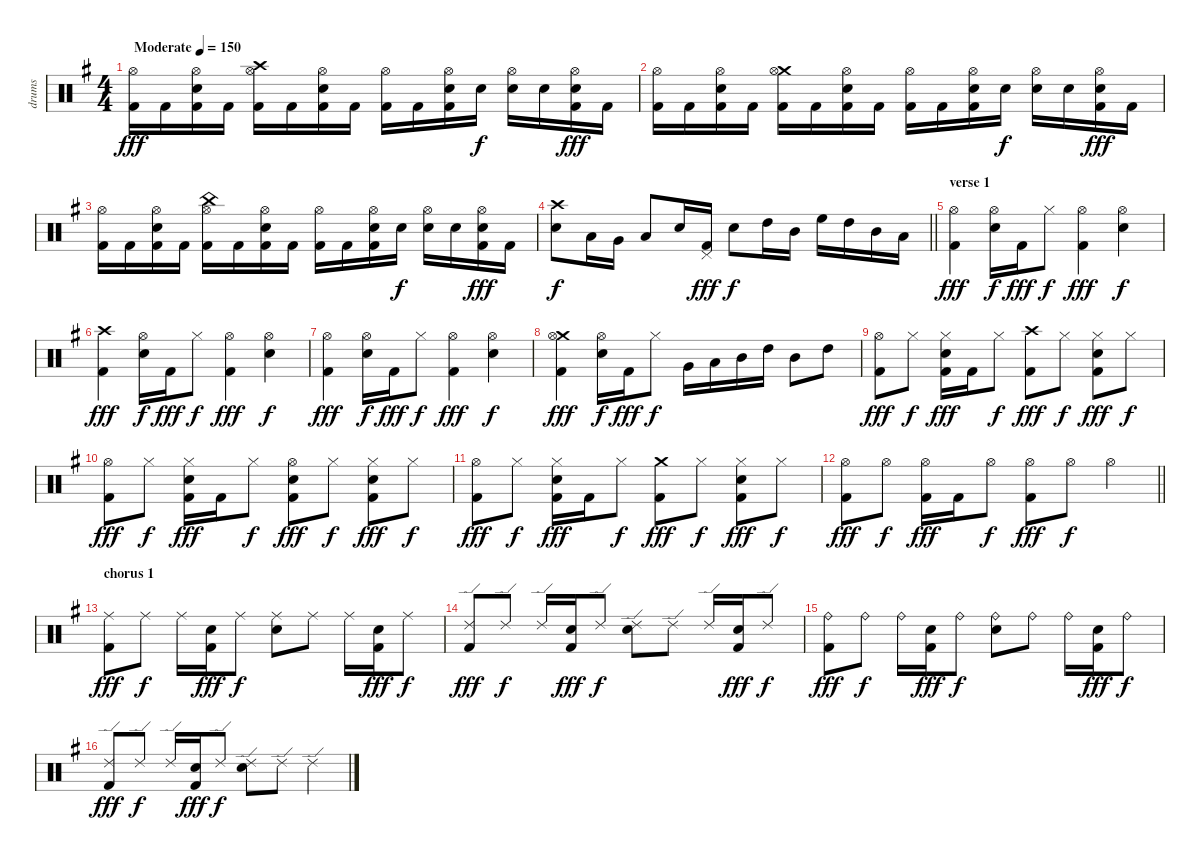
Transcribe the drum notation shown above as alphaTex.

\track ("drums" "drums") {instrument percussion}
\staff {score}
\articulation defaults
\ts (4 4)
\tempo (150 "Moderate")
\clef neutral
\ks eminor
("Hi-Hat (open)" "Kick (hit) 2").16{dy fff} "Kick (hit) 2".16 ("Electric Snare (hit)" "Hi-Hat (open)" "Kick (hit) 2").16 "Kick (hit) 2".16 ("Crash high (hit)" "Hi-Hat (open)" "Kick (hit) 2").16 "Kick (hit) 2".16 ("Electric Snare (hit)" "Hi-Hat (open)" "Kick (hit) 2").16 "Kick (hit) 2".16 ("Hi-Hat (open)" "Kick (hit) 2").16 "Kick (hit) 2".16 ("Electric Snare (hit)" "Hi-Hat (open)" "Kick (hit) 2").16 "Electric Snare (hit)".16{dy f} ("Electric Snare (hit)" "Hi-Hat (open)").16 "Electric Snare (hit)".16 ("Electric Snare (hit)" "Hi-Hat (open)" "Kick (hit) 2").16{dy fff} "Kick (hit) 2".16 |
("Hi-Hat (open)" "Kick (hit) 2").16 "Kick (hit) 2".16 ("Electric Snare (hit)" "Hi-Hat (open)" "Kick (hit) 2").16 "Kick (hit) 2".16 ("Crash medium (hit)" "Hi-Hat (open)" "Kick (hit) 2").16 "Kick (hit) 2".16 ("Electric Snare (hit)" "Hi-Hat (open)" "Kick (hit) 2").16 "Kick (hit) 2".16 ("Hi-Hat (open)" "Kick (hit) 2").16 "Kick (hit) 2".16 ("Electric Snare (hit)" "Hi-Hat (open)" "Kick (hit) 2").16 "Electric Snare (hit)".16{dy f} ("Electric Snare (hit)" "Hi-Hat (open)").16 "Electric Snare (hit)".16 ("Electric Snare (hit)" "Hi-Hat (open)" "Kick (hit) 2").16{dy fff} "Kick (hit) 2".16 |
("Hi-Hat (open)" "Kick (hit) 2").16 "Kick (hit) 2".16 ("Electric Snare (hit)" "Hi-Hat (open)" "Kick (hit) 2").16 "Kick (hit) 2".16 ("China (hit)" "Hi-Hat (open)" "Kick (hit) 2").16 "Kick (hit) 2".16 ("Electric Snare (hit)" "Hi-Hat (open)" "Kick (hit) 2").16 "Kick (hit) 2".16 ("Hi-Hat (open)" "Kick (hit) 2").16 "Kick (hit) 2".16 ("Electric Snare (hit)" "Hi-Hat (open)" "Kick (hit) 2").16 "Electric Snare (hit)".16{dy f} ("Electric Snare (hit)" "Hi-Hat (open)").16 "Electric Snare (hit)".16 ("Electric Snare (hit)" "Hi-Hat (open)" "Kick (hit) 2").16{dy fff} "Kick (hit) 2".16 |
\barLineRight lightlight
("Crash high (hit)" "Electric Snare (hit)").8{dy f} "Low Tom (hit)".16 "Very Low Tom (hit)".16 "Low Floor Tom (hit)".8 "Electric Snare (hit)".16 ("Pedal Hi-Hat (hit)" "Kick (hit) 2").16{dy fff} "Electric Snare (hit)".8{dy f} "High Tom (hit)".16 "Mid Tom (hit)".16 "High Floor Tom (hit)".16 "High Tom (hit)".16 "Mid Tom (hit)".16 "Low Tom (hit)".16 |
\section ("" "verse 1")
("Hi-Hat (open)" "Kick (hit) 2").4{dy fff} ("Electric Snare (hit)" "Hi-Hat (open)").16{dy f} "Kick (hit) 2".16{dy fff} "Hi-Hat (closed)".8{dy f} ("Hi-Hat (open)" "Kick (hit) 2").4{dy fff} ("Electric Snare (hit)" "Hi-Hat (open)").4{dy f} |
("Crash high (hit)" "Kick (hit) 2").4{dy fff} ("Electric Snare (hit)" "Hi-Hat (open)").16{dy f} "Kick (hit) 2".16{dy fff} "Hi-Hat (closed)".8{dy f} ("Hi-Hat (open)" "Kick (hit) 2").4{dy fff} ("Electric Snare (hit)" "Hi-Hat (open)").4{dy f} |
("Hi-Hat (open)" "Kick (hit) 2").4{dy fff} ("Electric Snare (hit)" "Hi-Hat (open)").16{dy f} "Kick (hit) 2".16{dy fff} "Hi-Hat (closed)".8{dy f} ("Hi-Hat (open)" "Kick (hit) 2").4{dy fff} ("Electric Snare (hit)" "Hi-Hat (open)").4{dy f} |
("Crash medium (hit)" "Hi-Hat (open)" "Kick (hit) 2").4{dy fff} ("Electric Snare (hit)" "Hi-Hat (open)").16{dy f} "Kick (hit) 2".16{dy fff} "Hi-Hat (closed)".8{dy f} "Very Low Tom (hit)".16 "Low Tom (hit)".16 "Mid Tom (hit)".16 "High Tom (hit)".16 "Mid Tom (hit)".8 "High Tom (hit)".8 |
("Hi-Hat (open)" "Kick (hit) 2").8{dy fff} "Hi-Hat (closed)".8{dy f} ("Electric Snare (hit)" "Hi-Hat (closed)" "Kick (hit) 2").16{dy fff} "Kick (hit) 2".16 "Hi-Hat (closed)".8{dy f} ("Crash high (hit)" "Kick (hit) 2").8{dy fff} "Hi-Hat (closed)".8{dy f} ("Electric Snare (hit)" "Hi-Hat (closed)" "Kick (hit) 2").8{dy fff} "Hi-Hat (closed)".8{dy f} |
("Hi-Hat (open)" "Kick (hit) 2").8{dy fff} "Hi-Hat (closed)".8{dy f} ("Electric Snare (hit)" "Hi-Hat (closed)" "Kick (hit) 2").16{dy fff} "Kick (hit) 2".16 "Hi-Hat (closed)".8{dy f} ("Electric Snare (hit)" "Hi-Hat (open)" "Kick (hit) 2").8{dy fff} "Hi-Hat (closed)".8{dy f} ("Electric Snare (hit)" "Hi-Hat (closed)" "Kick (hit) 2").8{dy fff} "Hi-Hat (closed)".8{dy f} |
("Hi-Hat (open)" "Kick (hit) 2").8{dy fff} "Hi-Hat (closed)".8{dy f} ("Electric Snare (hit)" "Hi-Hat (closed)" "Kick (hit) 2").16{dy fff} "Kick (hit) 2".16 "Hi-Hat (closed)".8{dy f} ("Crash medium (hit)" "Kick (hit) 2").8{dy fff} "Hi-Hat (closed)".8{dy f} ("Electric Snare (hit)" "Hi-Hat (closed)" "Kick (hit) 2").8{dy fff} "Hi-Hat (closed)".8{dy f} |
\barLineRight lightlight
("Hi-Hat (open)" "Kick (hit) 2").8{dy fff} "Hi-Hat (open)".8{dy f} ("Hi-Hat (open)" "Kick (hit) 2").16{dy fff} "Kick (hit) 2".16 "Hi-Hat (open)".8{dy f} ("Hi-Hat (open)" "Kick (hit) 2").8{dy fff} "Hi-Hat (open)".8{dy f} "Hi-Hat (open)".4 |
\section ("" "chorus 1")
("Ride (middle)" "Kick (hit) 2").8{dy fff} "Ride (middle)".8{dy f} "Ride (middle)".16 ("Electric Snare (hit)" "Kick (hit) 2").16{dy fff} "Ride (middle)".8{dy f} ("Ride (middle)" "Electric Snare (hit)").8 "Ride (middle)".8 "Ride (middle)".16 ("Electric Snare (hit)" "Kick (hit) 2").16{dy fff} "Ride (middle)".8{dy f} |
("Ride (edge) 2" "Kick (hit) 2").8{dy fff} "Ride (edge) 2".8{dy f} "Ride (edge) 2".16 ("Electric Snare (hit)" "Kick (hit) 2").16{dy fff} "Ride (edge) 2".8{dy f} ("Ride (edge) 2" "Electric Snare (hit)").8 "Ride (edge) 2".8 "Ride (edge) 2".16 ("Electric Snare (hit)" "Kick (hit) 2").16{dy fff} "Ride (edge) 2".8{dy f} |
("Ride (bell)" "Kick (hit) 2").8{dy fff} "Ride (bell)".8{dy f} "Ride (bell)".16 ("Electric Snare (hit)" "Kick (hit) 2").16{dy fff} "Ride (bell)".8{dy f} ("Ride (bell)" "Electric Snare (hit)").8 "Ride (bell)".8 "Ride (bell)".16 ("Electric Snare (hit)" "Kick (hit) 2").16{dy fff} "Ride (bell)".8{dy f} |
("Ride (edge) 2" "Kick (hit) 2").8{dy fff} "Ride (edge) 2".8{dy f} "Ride (edge) 2".16 ("Electric Snare (hit)" "Kick (hit) 2").16{dy fff} "Ride (edge) 2".8{dy f} ("Ride (edge) 2" "Electric Snare (hit)").8 "Ride (edge) 2".8 "Ride (edge) 2".4
